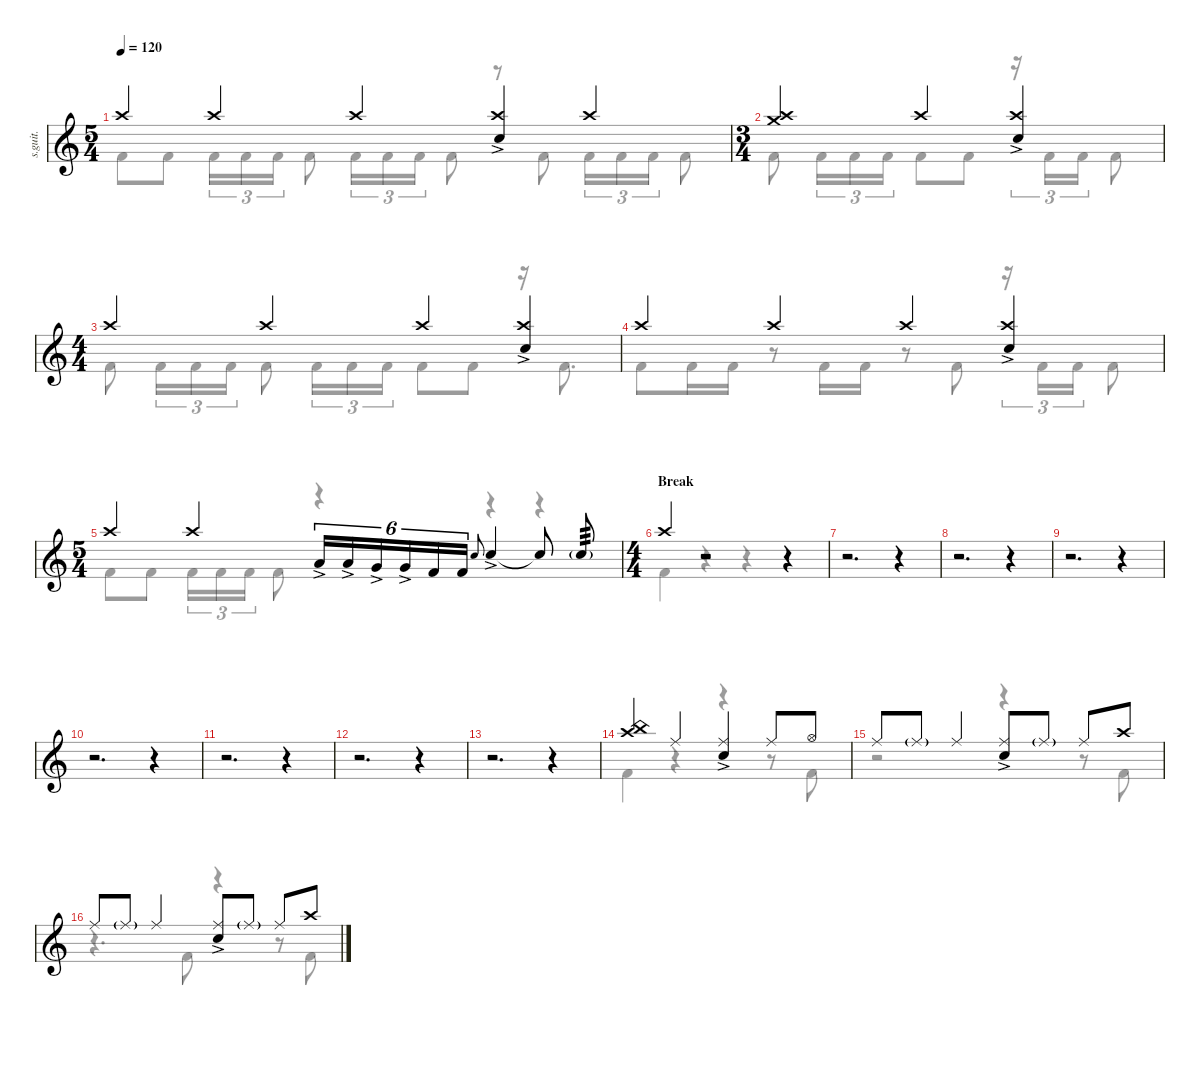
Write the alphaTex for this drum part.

\defaultSystemsLayout 4
\hideDynamics
\bracketExtendMode nobrackets
\track ("Percussion" "s.guit.") {instrument percussion}
\staff {score}
\articulation defaults
\voice
\ts (5 4)
\beaming (8 2 2 2 2)
\tempo 120
\clef g2
\ks c "Crash high (hit)".4{lyrics (0 "") lyrics (1 "") lyrics (2 "") lyrics (3 "") lyrics (4 "") dy f} "Crash high (hit)".4{lyrics (0 "") lyrics (1 "") lyrics (2 "") lyrics (3 "") lyrics (4 "")} "Crash high (hit)".4{lyrics (0 "") lyrics (1 "") lyrics (2 "") lyrics (3 "") lyrics (4 "")}
("Snare (hit) 2"{ac} "Crash high (hit)").4{lyrics (0 "") lyrics (1 "") lyrics (2 "") lyrics (3 "") lyrics (4 "")} "Crash high (hit)".4{lyrics (0 "") lyrics (1 "") lyrics (2 "") lyrics (3 "") lyrics (4 "")} |
\ts (3 4)
\beaming (8 2 2 2 2)
("Crash high (hit)" "Crash medium (hit)").4{lyrics (0 "") lyrics (1 "") lyrics (2 "") lyrics (3 "") lyrics (4 "")} "Crash high (hit)".4{lyrics (0 "") lyrics (1 "") lyrics (2 "") lyrics (3 "") lyrics (4 "")} ("Snare (hit) 2"{ac} "Crash high (hit)").4{lyrics (0 "") lyrics (1 "") lyrics (2 "") lyrics (3 "") lyrics (4 "")} |
\ts (4 4)
\beaming (8 2 2 2 2)
"Crash high (hit)".4{lyrics (0 "") lyrics (1 "") lyrics (2 "") lyrics (3 "") lyrics (4 "")} "Crash high (hit)".4{lyrics (0 "") lyrics (1 "") lyrics (2 "") lyrics (3 "") lyrics (4 "")} "Crash high (hit)".4{lyrics (0 "") lyrics (1 "") lyrics (2 "") lyrics (3 "") lyrics (4 "")} ("Snare (hit) 2"{ac} "Crash high (hit)").4{lyrics (0 "") lyrics (1 "") lyrics (2 "") lyrics (3 "") lyrics (4 "")} |
"Crash high (hit)".4{lyrics (0 "") lyrics (1 "") lyrics (2 "") lyrics (3 "") lyrics (4 "")} "Crash high (hit)".4{lyrics (0 "") lyrics (1 "") lyrics (2 "") lyrics (3 "") lyrics (4 "")} "Crash high (hit)".4{lyrics (0 "") lyrics (1 "") lyrics (2 "") lyrics (3 "") lyrics (4 "")} ("Snare (hit) 2"{ac} "Crash high (hit)").4{lyrics (0 "") lyrics (1 "") lyrics (2 "") lyrics (3 "") lyrics (4 "")} |
\ts (5 4)
\beaming (8 2 2 2 2)
"Crash high (hit)".4{lyrics (0 "") lyrics (1 "") lyrics (2 "") lyrics (3 "") lyrics (4 "")} "Crash high (hit)".4{lyrics (0 "") lyrics (1 "") lyrics (2 "") lyrics (3 "") lyrics (4 "")} "Low Tom (hit)"{ac}.16{tu (6 4) lyrics (0 "") lyrics (1 "") lyrics (2 "") lyrics (3 "") lyrics (4 "") dy mf} "Low Tom (hit)"{ac}.16{tu (6 4) lyrics (0 "") lyrics (1 "") lyrics (2 "") lyrics (3 "") lyrics (4 "")} "Very Low Tom (hit)"{ac}.16{tu (6 4) lyrics (0 "") lyrics (1 "") lyrics (2 "") lyrics (3 "") lyrics (4 "")} "Very Low Tom (hit)"{ac}.16{tu (6 4) lyrics (0 "") lyrics (1 "") lyrics (2 "") lyrics (3 "") lyrics (4 "")} "Kick (hit) 2".16{tu (6 4) lyrics (0 "") lyrics (1 "") lyrics (2 "") lyrics (3 "") lyrics (4 "") dy f} "Kick (hit) 2".16{tu (6 4) lyrics (0 "") lyrics (1 "") lyrics (2 "") lyrics (3 "") lyrics (4 "")} "Snare (hit) 2".8{lyrics (0 "") lyrics (1 "") lyrics (2 "") lyrics (3 "") lyrics (4 "") gr onbeat dy mf} "Snare (hit) 2"{ac}.4{lyrics (0 "") lyrics (1 "") lyrics (2 "") lyrics (3 "") lyrics (4 "")} "Snare (hit) 2"{t}.8{lyrics (0 "") lyrics (1 "") lyrics (2 "") lyrics (3 "") lyrics (4 "") dy f} "Snare (hit) 2"{g}.8{lyrics (0 "") lyrics (1 "") lyrics (2 "") lyrics (3 "") lyrics (4 "") tp 3 dy ff} |
\ts (4 4)
\beaming (8 2 2 2 2)
\section ("" "Break")
"Crash high (hit)".4{lyrics (0 "") lyrics (1 "") lyrics (2 "") lyrics (3 "") lyrics (4 "") dy f} r.2 r.4 |
r.2{d} r.4 |
r.2{d} r.4 |
r.2{d} r.4 |
r.2{d} r.4 |
r.2{d} r.4 |
r.2{d} r.4 |
r.2{d} r.4 |
("Crash high (hit)" "China (hit)").4{lyrics (0 "") lyrics (1 "") lyrics (2 "") lyrics (3 "") lyrics (4 "")} "Ride (middle)".4{lyrics (0 "") lyrics (1 "") lyrics (2 "") lyrics (3 "") lyrics (4 "")} ("Ride (middle)" "Snare (hit) 2"{ac}).4{lyrics (0 "") lyrics (1 "") lyrics (2 "") lyrics (3 "") lyrics (4 "")} "Ride (middle)".8{lyrics (0 "") lyrics (1 "") lyrics (2 "") lyrics (3 "") lyrics (4 "")} "Hi-Hat (open)".8{lyrics (0 "") lyrics (1 "") lyrics (2 "") lyrics (3 "") lyrics (4 "")} |
"Ride (middle)".8{lyrics (0 "") lyrics (1 "") lyrics (2 "") lyrics (3 "") lyrics (4 "")} "Ride (middle)"{g}.8{lyrics (0 "") lyrics (1 "") lyrics (2 "") lyrics (3 "") lyrics (4 "") dy ff} "Ride (middle)".4{lyrics (0 "") lyrics (1 "") lyrics (2 "") lyrics (3 "") lyrics (4 "") dy f} ("Ride (middle)" "Snare (hit) 2"{ac}).8{lyrics (0 "") lyrics (1 "") lyrics (2 "") lyrics (3 "") lyrics (4 "")} "Ride (middle)"{g}.8{lyrics (0 "") lyrics (1 "") lyrics (2 "") lyrics (3 "") lyrics (4 "") dy ff} "Ride (middle)".8{lyrics (0 "") lyrics (1 "") lyrics (2 "") lyrics (3 "") lyrics (4 "") dy f} "Crash high (hit)".8{lyrics (0 "") lyrics (1 "") lyrics (2 "") lyrics (3 "") lyrics (4 "")} |
"Ride (middle)".8{lyrics (0 "") lyrics (1 "") lyrics (2 "") lyrics (3 "") lyrics (4 "")} "Ride (middle)"{g}.8{lyrics (0 "") lyrics (1 "") lyrics (2 "") lyrics (3 "") lyrics (4 "") dy ff} "Ride (middle)".4{lyrics (0 "") lyrics (1 "") lyrics (2 "") lyrics (3 "") lyrics (4 "") dy f} ("Ride (middle)" "Snare (hit) 2"{ac}).8{lyrics (0 "") lyrics (1 "") lyrics (2 "") lyrics (3 "") lyrics (4 "")} "Ride (middle)"{g}.8{lyrics (0 "") lyrics (1 "") lyrics (2 "") lyrics (3 "") lyrics (4 "") dy ff} "Ride (middle)".8{lyrics (0 "") lyrics (1 "") lyrics (2 "") lyrics (3 "") lyrics (4 "") dy f} "Crash high (hit)".8{lyrics (0 "") lyrics (1 "") lyrics (2 "") lyrics (3 "") lyrics (4 "")}
\voice
\clef g2
\ottava regular
\simile none
\ks c "Kick (hit) 2".8{lyrics (0 "") lyrics (1 "") lyrics (2 "") lyrics (3 "") lyrics (4 "") dy f} "Kick (hit) 2".8{lyrics (0 "") lyrics (1 "") lyrics (2 "") lyrics (3 "") lyrics (4 "")} "Kick (hit) 2".16{tu (3 2) lyrics (0 "") lyrics (1 "") lyrics (2 "") lyrics (3 "") lyrics (4 "")} "Kick (hit) 2".16{tu (3 2) lyrics (0 "") lyrics (1 "") lyrics (2 "") lyrics (3 "") lyrics (4 "")} "Kick (hit) 2".16{tu (3 2) lyrics (0 "") lyrics (1 "") lyrics (2 "") lyrics (3 "") lyrics (4 "")} "Kick (hit) 2".8{lyrics (0 "") lyrics (1 "") lyrics (2 "") lyrics (3 "") lyrics (4 "")} "Kick (hit) 2".16{tu (3 2) lyrics (0 "") lyrics (1 "") lyrics (2 "") lyrics (3 "") lyrics (4 "")} "Kick (hit) 2".16{tu (3 2) lyrics (0 "") lyrics (1 "") lyrics (2 "") lyrics (3 "") lyrics (4 "")} "Kick (hit) 2".16{tu (3 2) lyrics (0 "") lyrics (1 "") lyrics (2 "") lyrics (3 "") lyrics (4 "")} "Kick (hit) 2".8{lyrics (0 "") lyrics (1 "") lyrics (2 "") lyrics (3 "") lyrics (4 "")}
r.8 "Kick (hit) 2".8{lyrics (0 "") lyrics (1 "") lyrics (2 "") lyrics (3 "") lyrics (4 "")} "Kick (hit) 2".16{tu (3 2) lyrics (0 "") lyrics (1 "") lyrics (2 "") lyrics (3 "") lyrics (4 "")} "Kick (hit) 2".16{tu (3 2) lyrics (0 "") lyrics (1 "") lyrics (2 "") lyrics (3 "") lyrics (4 "")} "Kick (hit) 2".16{tu (3 2) lyrics (0 "") lyrics (1 "") lyrics (2 "") lyrics (3 "") lyrics (4 "")} "Kick (hit) 2".8{lyrics (0 "") lyrics (1 "") lyrics (2 "") lyrics (3 "") lyrics (4 "")} |
"Kick (hit) 2".8{lyrics (0 "") lyrics (1 "") lyrics (2 "") lyrics (3 "") lyrics (4 "")} "Kick (hit) 2".16{tu (3 2) lyrics (0 "") lyrics (1 "") lyrics (2 "") lyrics (3 "") lyrics (4 "")} "Kick (hit) 2".16{tu (3 2) lyrics (0 "") lyrics (1 "") lyrics (2 "") lyrics (3 "") lyrics (4 "")} "Kick (hit) 2".16{tu (3 2) lyrics (0 "") lyrics (1 "") lyrics (2 "") lyrics (3 "") lyrics (4 "")} "Kick (hit) 2".8{lyrics (0 "") lyrics (1 "") lyrics (2 "") lyrics (3 "") lyrics (4 "")} "Kick (hit) 2".8{lyrics (0 "") lyrics (1 "") lyrics (2 "") lyrics (3 "") lyrics (4 "")} r.16{tu (3 2)} "Kick (hit) 2".16{tu (3 2) lyrics (0 "") lyrics (1 "") lyrics (2 "") lyrics (3 "") lyrics (4 "")} "Kick (hit) 2".16{tu (3 2) lyrics (0 "") lyrics (1 "") lyrics (2 "") lyrics (3 "") lyrics (4 "")} "Kick (hit) 2".8{lyrics (0 "") lyrics (1 "") lyrics (2 "") lyrics (3 "") lyrics (4 "")} |
"Kick (hit) 2".8{lyrics (0 "") lyrics (1 "") lyrics (2 "") lyrics (3 "") lyrics (4 "")} "Kick (hit) 2".16{tu (3 2) lyrics (0 "") lyrics (1 "") lyrics (2 "") lyrics (3 "") lyrics (4 "")} "Kick (hit) 2".16{tu (3 2) lyrics (0 "") lyrics (1 "") lyrics (2 "") lyrics (3 "") lyrics (4 "")} "Kick (hit) 2".16{tu (3 2) lyrics (0 "") lyrics (1 "") lyrics (2 "") lyrics (3 "") lyrics (4 "")} "Kick (hit) 2".8{lyrics (0 "") lyrics (1 "") lyrics (2 "") lyrics (3 "") lyrics (4 "")} "Kick (hit) 2".16{tu (3 2) lyrics (0 "") lyrics (1 "") lyrics (2 "") lyrics (3 "") lyrics (4 "")} "Kick (hit) 2".16{tu (3 2) lyrics (0 "") lyrics (1 "") lyrics (2 "") lyrics (3 "") lyrics (4 "")} "Kick (hit) 2".16{tu (3 2) lyrics (0 "") lyrics (1 "") lyrics (2 "") lyrics (3 "") lyrics (4 "")} "Kick (hit) 2".8{lyrics (0 "") lyrics (1 "") lyrics (2 "") lyrics (3 "") lyrics (4 "")} "Kick (hit) 2".8{lyrics (0 "") lyrics (1 "") lyrics (2 "") lyrics (3 "") lyrics (4 "")} r.16 "Kick (hit) 2".8{d lyrics (0 "") lyrics (1 "") lyrics (2 "") lyrics (3 "") lyrics (4 "")} |
"Kick (hit) 2".8{lyrics (0 "") lyrics (1 "") lyrics (2 "") lyrics (3 "") lyrics (4 "")} "Kick (hit) 2".16{lyrics (0 "") lyrics (1 "") lyrics (2 "") lyrics (3 "") lyrics (4 "")} "Kick (hit) 2".16{lyrics (0 "") lyrics (1 "") lyrics (2 "") lyrics (3 "") lyrics (4 "")} r.8 "Kick (hit) 2".16{lyrics (0 "") lyrics (1 "") lyrics (2 "") lyrics (3 "") lyrics (4 "")} "Kick (hit) 2".16{lyrics (0 "") lyrics (1 "") lyrics (2 "") lyrics (3 "") lyrics (4 "")} r.8 "Kick (hit) 2".8{lyrics (0 "") lyrics (1 "") lyrics (2 "") lyrics (3 "") lyrics (4 "")} r.16{tu (3 2)} "Kick (hit) 2".16{tu (3 2) lyrics (0 "") lyrics (1 "") lyrics (2 "") lyrics (3 "") lyrics (4 "")} "Kick (hit) 2".16{tu (3 2) lyrics (0 "") lyrics (1 "") lyrics (2 "") lyrics (3 "") lyrics (4 "")} "Kick (hit) 2".8{lyrics (0 "") lyrics (1 "") lyrics (2 "") lyrics (3 "") lyrics (4 "")} |
"Kick (hit) 2".8{lyrics (0 "") lyrics (1 "") lyrics (2 "") lyrics (3 "") lyrics (4 "")} "Kick (hit) 2".8{lyrics (0 "") lyrics (1 "") lyrics (2 "") lyrics (3 "") lyrics (4 "")} "Kick (hit) 2".16{tu (3 2) lyrics (0 "") lyrics (1 "") lyrics (2 "") lyrics (3 "") lyrics (4 "")} "Kick (hit) 2".16{tu (3 2) lyrics (0 "") lyrics (1 "") lyrics (2 "") lyrics (3 "") lyrics (4 "")} "Kick (hit) 2".16{tu (3 2) lyrics (0 "") lyrics (1 "") lyrics (2 "") lyrics (3 "") lyrics (4 "")} "Kick (hit) 2".8{lyrics (0 "") lyrics (1 "") lyrics (2 "") lyrics (3 "") lyrics (4 "")} r.4 r.4 r.4 |
"Kick (hit) 2".4{lyrics (0 "") lyrics (1 "") lyrics (2 "") lyrics (3 "") lyrics (4 "")} r.4 r.4 r.4 |
r.2{d} r.4 |
r.2{d} r.4 |
r.2{d} r.4 |
r.2{d} r.4 |
r.2{d} r.4 |
r.2{d} r.4 |
r.2{d} r.4 |
"Kick (hit) 2".4{lyrics (0 "") lyrics (1 "") lyrics (2 "") lyrics (3 "") lyrics (4 "")} r.4 r.4 r.8 "Kick (hit) 2".8{lyrics (0 "") lyrics (1 "") lyrics (2 "") lyrics (3 "") lyrics (4 "")} |
r.2 r.4 r.8 "Kick (hit) 2".8{lyrics (0 "") lyrics (1 "") lyrics (2 "") lyrics (3 "") lyrics (4 "")} |
r.4{d} "Kick (hit) 2".8{lyrics (0 "") lyrics (1 "") lyrics (2 "") lyrics (3 "") lyrics (4 "")} r.4 r.8 "Kick (hit) 2".8{lyrics (0 "") lyrics (1 "") lyrics (2 "") lyrics (3 "") lyrics (4 "")}
